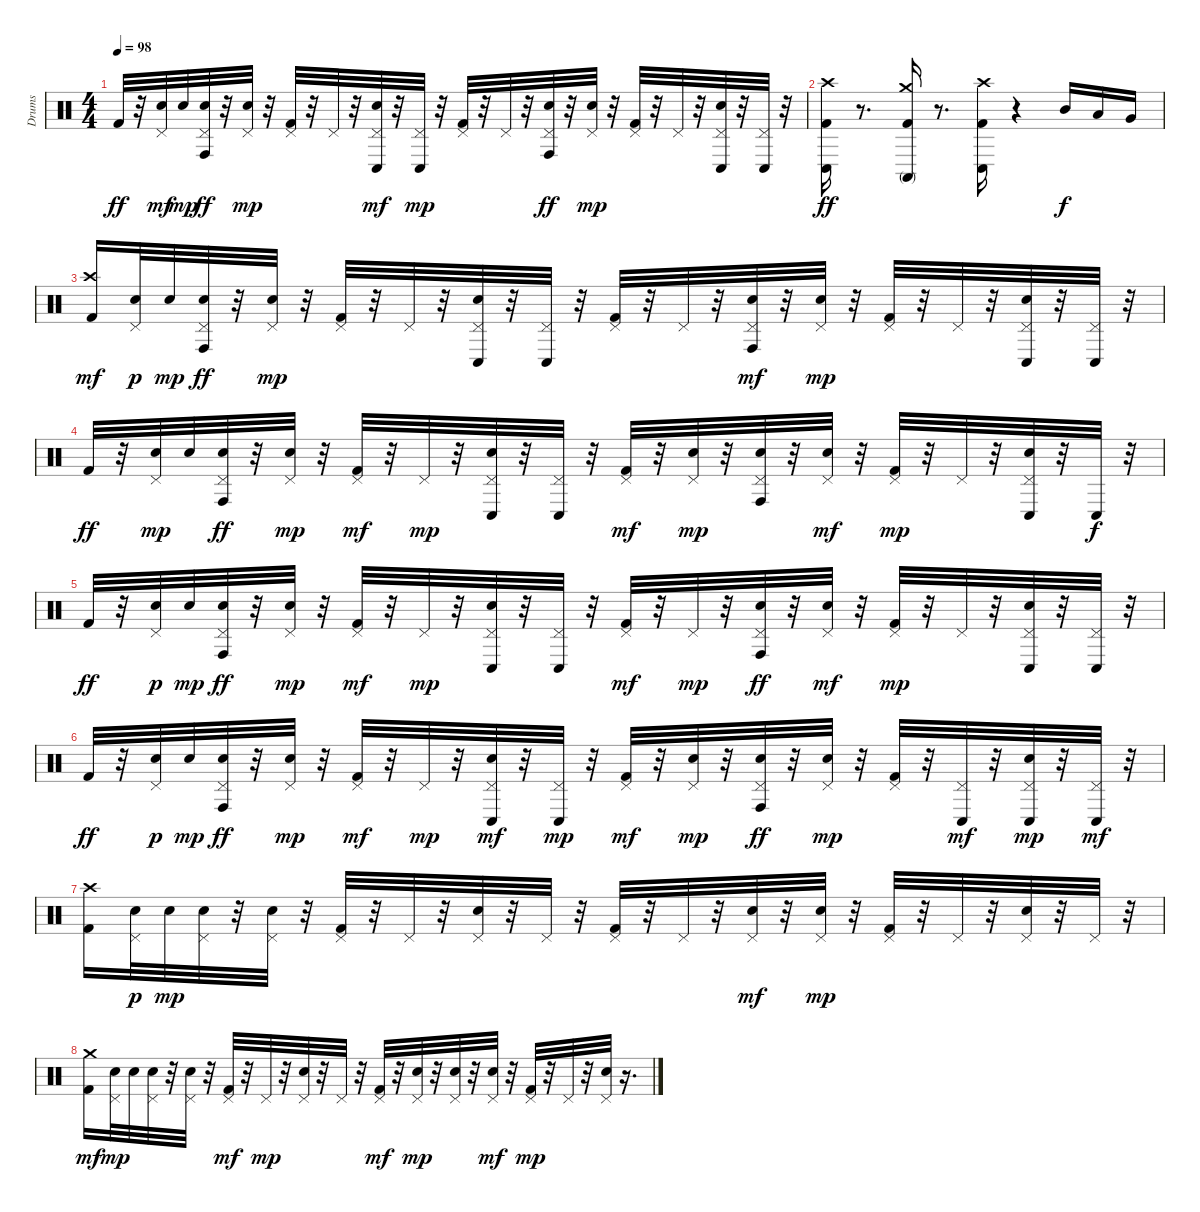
\track ("Drums" "Drums") {instrument percussion}
\staff {score}
\articulation defaults
\ts (4 4)
\tempo 98
\clef neutral
\ks c "Kick (hit) 2".32{dy ff}
r.32 ("Electric Snare (hit)" "Pedal Hi-Hat (hit)").32{dy mf} "Electric Snare (hit)".32{dy mp} ("Electric Snare (hit)" "Pedal Hi-Hat (hit)" "Conga high (hit)").32{dy ff} r.32 ("Electric Snare (hit)" "Pedal Hi-Hat (hit)").32{dy mp} r.32 ("Kick (hit) 2" "Pedal Hi-Hat (hit)").32 r.32 "Pedal Hi-Hat (hit)".32 r.32 ("Electric Snare (hit)" "Pedal Hi-Hat (hit)" "Conga low (hit)").32{dy mf} r.32 ("Pedal Hi-Hat (hit)" "Conga low (hit)").32{dy mp} r.32 ("Kick (hit) 2" "Pedal Hi-Hat (hit)").32 r.32 "Pedal Hi-Hat (hit)".32 r.32 ("Electric Snare (hit)" "Pedal Hi-Hat (hit)" "Conga high (hit)").32{dy ff} r.32 ("Electric Snare (hit)" "Pedal Hi-Hat (hit)").32{dy mp} r.32 ("Kick (hit) 2" "Pedal Hi-Hat (hit)").32 r.32 "Pedal Hi-Hat (hit)".32 r.32 ("Electric Snare (hit)" "Pedal Hi-Hat (hit)" "Conga low (hit)").32 r.32 ("Pedal Hi-Hat (hit)" "Conga low (hit)").32 r.32 |
("Kick (hit) 2" "Crash high (hit)" "Conga low (hit)").16{dy ff} r.8{d} ("Kick (hit) 2" "Crash medium (hit)" "Conga high (mute)").16 r.8{d} ("Kick (hit) 2" "Crash high (hit)" "Conga low (hit)").16 r.4 "Mid Tom (hit)".16{dy f} "Low Tom (hit)".16 "Very Low Tom (hit)".16 |
("Kick (hit) 2" "Crash high (hit)").16{dy mf} ("Electric Snare (hit)" "Pedal Hi-Hat (hit)").32{dy p} "Electric Snare (hit)".32{dy mp} ("Electric Snare (hit)" "Pedal Hi-Hat (hit)" "Conga high (hit)").32{dy ff} r.32 ("Electric Snare (hit)" "Pedal Hi-Hat (hit)").32{dy mp} r.32 ("Kick (hit) 2" "Pedal Hi-Hat (hit)").32 r.32 "Pedal Hi-Hat (hit)".32 r.32 ("Electric Snare (hit)" "Pedal Hi-Hat (hit)" "Conga low (hit)").32 r.32 ("Pedal Hi-Hat (hit)" "Conga low (hit)").32 r.32 ("Kick (hit) 2" "Pedal Hi-Hat (hit)").32 r.32 "Pedal Hi-Hat (hit)".32 r.32 ("Electric Snare (hit)" "Pedal Hi-Hat (hit)" "Conga high (hit)").32{dy mf} r.32 ("Electric Snare (hit)" "Pedal Hi-Hat (hit)").32{dy mp} r.32 ("Kick (hit) 2" "Pedal Hi-Hat (hit)").32 r.32 "Pedal Hi-Hat (hit)".32 r.32 ("Electric Snare (hit)" "Pedal Hi-Hat (hit)" "Conga low (hit)").32 r.32 ("Pedal Hi-Hat (hit)" "Conga low (hit)").32 r.32 |
"Kick (hit) 2".32{dy ff} r.32 ("Electric Snare (hit)" "Pedal Hi-Hat (hit)").32{dy mp} "Electric Snare (hit)".32 ("Electric Snare (hit)" "Pedal Hi-Hat (hit)" "Conga high (hit)").32{dy ff} r.32 ("Electric Snare (hit)" "Pedal Hi-Hat (hit)").32{dy mp} r.32 ("Kick (hit) 2" "Pedal Hi-Hat (hit)").32{dy mf} r.32 "Pedal Hi-Hat (hit)".32{dy mp} r.32 ("Electric Snare (hit)" "Pedal Hi-Hat (hit)" "Conga low (hit)").32 r.32 ("Pedal Hi-Hat (hit)" "Conga low (hit)").32 r.32 ("Kick (hit) 2" "Pedal Hi-Hat (hit)").32{dy mf} r.32 ("Electric Snare (hit)" "Pedal Hi-Hat (hit)").32{dy mp} r.32 ("Electric Snare (hit)" "Pedal Hi-Hat (hit)" "Conga high (hit)").32 r.32 ("Electric Snare (hit)" "Pedal Hi-Hat (hit)").32{dy mf} r.32 ("Kick (hit) 2" "Pedal Hi-Hat (hit)").32{dy mp} r.32 "Pedal Hi-Hat (hit)".32 r.32 ("Electric Snare (hit)" "Pedal Hi-Hat (hit)" "Conga low (hit)").32 r.32 "Conga low (hit)".32{dy f} r.32 |
"Kick (hit) 2".32{dy ff} r.32 ("Electric Snare (hit)" "Pedal Hi-Hat (hit)").32{dy p} "Electric Snare (hit)".32{dy mp} ("Electric Snare (hit)" "Pedal Hi-Hat (hit)" "Conga high (hit)").32{dy ff} r.32 ("Electric Snare (hit)" "Pedal Hi-Hat (hit)").32{dy mp} r.32 ("Kick (hit) 2" "Pedal Hi-Hat (hit)").32{dy mf} r.32 "Pedal Hi-Hat (hit)".32{dy mp} r.32 ("Electric Snare (hit)" "Pedal Hi-Hat (hit)" "Conga low (hit)").32 r.32 ("Pedal Hi-Hat (hit)" "Conga low (hit)").32 r.32 ("Kick (hit) 2" "Pedal Hi-Hat (hit)").32{dy mf} r.32 "Pedal Hi-Hat (hit)".32{dy mp} r.32 ("Electric Snare (hit)" "Pedal Hi-Hat (hit)" "Conga high (hit)").32{dy ff} r.32 ("Electric Snare (hit)" "Pedal Hi-Hat (hit)").32{dy mf} r.32 ("Kick (hit) 2" "Pedal Hi-Hat (hit)").32{dy mp} r.32 "Pedal Hi-Hat (hit)".32 r.32 ("Electric Snare (hit)" "Pedal Hi-Hat (hit)" "Conga low (hit)").32 r.32 ("Pedal Hi-Hat (hit)" "Conga low (hit)").32 r.32 |
"Kick (hit) 2".32{dy ff} r.32 ("Electric Snare (hit)" "Pedal Hi-Hat (hit)").32{dy p} "Electric Snare (hit)".32{dy mp} ("Electric Snare (hit)" "Pedal Hi-Hat (hit)" "Conga high (hit)").32{dy ff} r.32 ("Electric Snare (hit)" "Pedal Hi-Hat (hit)").32{dy mp} r.32 ("Kick (hit) 2" "Pedal Hi-Hat (hit)").32{dy mf} r.32 "Pedal Hi-Hat (hit)".32{dy mp} r.32 ("Electric Snare (hit)" "Pedal Hi-Hat (hit)" "Conga low (hit)").32{dy mf} r.32 ("Pedal Hi-Hat (hit)" "Conga low (hit)").32{dy mp} r.32 ("Kick (hit) 2" "Pedal Hi-Hat (hit)").32{dy mf} r.32 ("Electric Snare (hit)" "Pedal Hi-Hat (hit)").32{dy mp} r.32 ("Electric Snare (hit)" "Pedal Hi-Hat (hit)" "Conga high (hit)").32{dy ff} r.32 ("Electric Snare (hit)" "Pedal Hi-Hat (hit)").32{dy mp} r.32 ("Kick (hit) 2" "Pedal Hi-Hat (hit)").32 r.32 ("Pedal Hi-Hat (hit)" "Conga low (hit)").32{dy mf} r.32 ("Electric Snare (hit)" "Pedal Hi-Hat (hit)" "Conga low (hit)").32{dy mp} r.32 ("Pedal Hi-Hat (hit)" "Conga low (hit)").32{dy mf} r.32 |
("Kick (hit) 2" "Crash high (hit)").16 ("Electric Snare (hit)" "Pedal Hi-Hat (hit)").32{dy p} "Electric Snare (hit)".32{dy mp} ("Electric Snare (hit)" "Pedal Hi-Hat (hit)").32 r.32 ("Electric Snare (hit)" "Pedal Hi-Hat (hit)").32 r.32 ("Kick (hit) 2" "Pedal Hi-Hat (hit)").32 r.32 "Pedal Hi-Hat (hit)".32 r.32 ("Electric Snare (hit)" "Pedal Hi-Hat (hit)").32 r.32 "Pedal Hi-Hat (hit)".32 r.32 ("Kick (hit) 2" "Pedal Hi-Hat (hit)").32 r.32 "Pedal Hi-Hat (hit)".32 r.32 ("Electric Snare (hit)" "Pedal Hi-Hat (hit)").32{dy mf} r.32 ("Electric Snare (hit)" "Pedal Hi-Hat (hit)").32{dy mp} r.32 ("Kick (hit) 2" "Pedal Hi-Hat (hit)").32 r.32 "Pedal Hi-Hat (hit)".32 r.32 ("Electric Snare (hit)" "Pedal Hi-Hat (hit)").32 r.32 "Pedal Hi-Hat (hit)".32 r.32 |
("Kick (hit) 2" "Crash medium (hit)").16{dy mf} ("Electric Snare (hit)" "Pedal Hi-Hat (hit)").32{dy mp} "Electric Snare (hit)".32 ("Electric Snare (hit)" "Pedal Hi-Hat (hit)").32 r.32 ("Electric Snare (hit)" "Pedal Hi-Hat (hit)").32 r.32 ("Kick (hit) 2" "Pedal Hi-Hat (hit)").32{dy mf} r.32 "Pedal Hi-Hat (hit)".32{dy mp} r.32 ("Electric Snare (hit)" "Pedal Hi-Hat (hit)").32 r.32 "Pedal Hi-Hat (hit)".32 r.32 ("Kick (hit) 2" "Pedal Hi-Hat (hit)").32{dy mf} r.32 ("Electric Snare (hit)" "Pedal Hi-Hat (hit)").32{dy mp} r.32 ("Electric Snare (hit)" "Pedal Hi-Hat (hit)").32 r.32 ("Electric Snare (hit)" "Pedal Hi-Hat (hit)").32{dy mf} r.32 ("Kick (hit) 2" "Pedal Hi-Hat (hit)").32{dy mp} r.32 "Pedal Hi-Hat (hit)".32 r.32 ("Electric Snare (hit)" "Pedal Hi-Hat (hit)").32 r.16{d}
